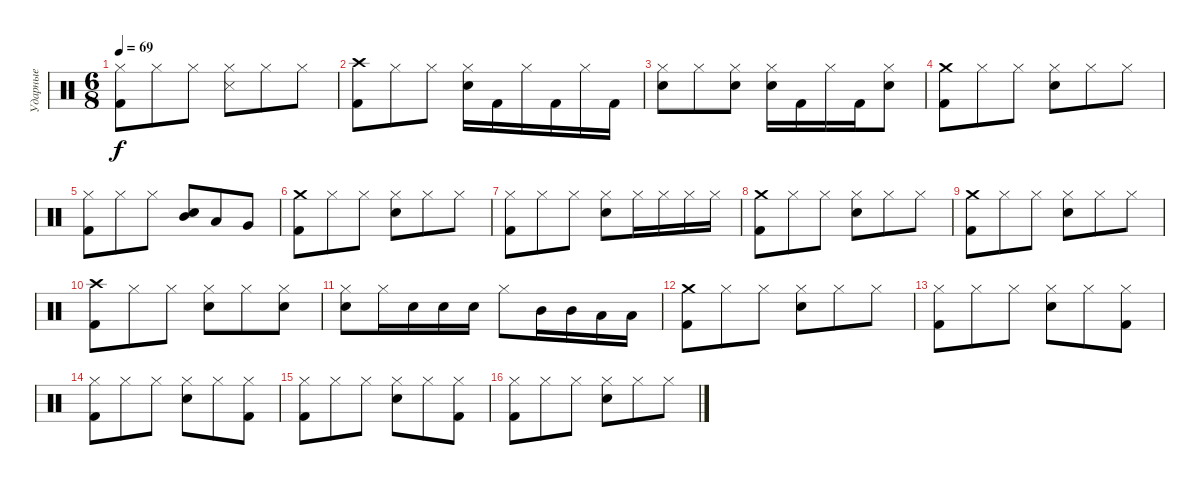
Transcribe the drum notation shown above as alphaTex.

\track ("Ударные" "Ударные") {instrument percussion}
\staff {score}
\articulation defaults
\ts (6 8)
\tempo 69
\clef neutral
\ks c
("Hi-Hat (closed)" "Kick (hit) 2").8{dy f} "Hi-Hat (closed)".8 "Hi-Hat (closed)".8 ("Hi-Hat (closed)" "Snare (side stick) 3").8 "Hi-Hat (closed)".8 "Hi-Hat (closed)".8 |
("Crash high (hit)" "Kick (hit) 2").8 "Hi-Hat (closed)".8 "Hi-Hat (closed)".8 ("Hi-Hat (closed)" "Snare (hit) 2").16 "Kick (hit) 2".16 "Hi-Hat (closed)".16 "Kick (hit) 2".16 "Hi-Hat (closed)".16 "Kick (hit) 2".16 |
("Hi-Hat (closed)" "Snare (hit) 2").8 "Hi-Hat (closed)".8 ("Hi-Hat (closed)" "Snare (hit) 2").8 ("Hi-Hat (closed)" "Snare (hit) 2").16 "Kick (hit) 2".16 "Hi-Hat (closed)".16 "Kick (hit) 2".16 ("Hi-Hat (closed)" "Snare (hit) 2").8 |
("Crash medium (hit)" "Kick (hit) 2").8 "Hi-Hat (closed)".8 "Hi-Hat (closed)".8 ("Hi-Hat (closed)" "Snare (hit) 2").8 "Hi-Hat (closed)".8 "Hi-Hat (closed)".8 |
("Hi-Hat (closed)" "Kick (hit) 2").8 "Hi-Hat (closed)".8 "Hi-Hat (closed)".8 ("Snare (hit) 2" "Mid Tom (hit)").8 "Low Tom (hit)".8 "Very Low Tom (hit)".8 |
("Crash medium (hit)" "Kick (hit) 2").8 "Hi-Hat (closed)".8 "Hi-Hat (closed)".8 ("Hi-Hat (closed)" "Snare (hit) 2").8 "Hi-Hat (closed)".8 "Hi-Hat (closed)".8 |
("Hi-Hat (closed)" "Kick (hit) 2").8 "Hi-Hat (closed)".8 "Hi-Hat (closed)".8 ("Hi-Hat (closed)" "Snare (hit) 2").8 "Hi-Hat (closed)".16 "Hi-Hat (closed)".16 "Hi-Hat (closed)".16 "Hi-Hat (closed)".16 |
("Crash medium (hit)" "Kick (hit) 2").8 "Hi-Hat (closed)".8 "Hi-Hat (closed)".8 ("Hi-Hat (closed)" "Snare (hit) 2").8 "Hi-Hat (closed)".8 "Hi-Hat (closed)".8 |
("Crash medium (hit)" "Kick (hit) 2").8 "Hi-Hat (closed)".8 "Hi-Hat (closed)".8 ("Hi-Hat (closed)" "Snare (hit) 2").8 "Hi-Hat (closed)".8 "Hi-Hat (closed)".8 |
("Crash high (hit)" "Kick (hit) 2").8 "Hi-Hat (closed)".8 "Hi-Hat (closed)".8 ("Hi-Hat (closed)" "Snare (hit) 2").8 "Hi-Hat (closed)".8 ("Hi-Hat (closed)" "Snare (hit) 2").8 |
("Hi-Hat (closed)" "Snare (hit) 2").8 "Hi-Hat (closed)".16 "Snare (hit) 2".16 "Snare (hit) 2".16 "Snare (hit) 2".16 "Hi-Hat (closed)".8 "Mid Tom (hit)".16 "Mid Tom (hit)".16 "Low Tom (hit)".16 "Low Tom (hit)".16 |
("Crash medium (hit)" "Kick (hit) 2").8 "Hi-Hat (closed)".8 "Hi-Hat (closed)".8 ("Hi-Hat (closed)" "Snare (hit) 2").8 "Hi-Hat (closed)".8 "Hi-Hat (closed)".8 |
("Hi-Hat (closed)" "Kick (hit) 2").8 "Hi-Hat (closed)".8 "Hi-Hat (closed)".8 ("Hi-Hat (closed)" "Snare (hit) 2").8 "Hi-Hat (closed)".8 ("Hi-Hat (closed)" "Kick (hit) 2").8 |
("Hi-Hat (closed)" "Kick (hit) 2").8 "Hi-Hat (closed)".8 "Hi-Hat (closed)".8 ("Hi-Hat (closed)" "Snare (hit) 2").8 "Hi-Hat (closed)".8 ("Hi-Hat (closed)" "Kick (hit) 2").8 |
("Hi-Hat (closed)" "Kick (hit) 2").8 "Hi-Hat (closed)".8 "Hi-Hat (closed)".8 ("Hi-Hat (closed)" "Snare (hit) 2").8 "Hi-Hat (closed)".8 ("Hi-Hat (closed)" "Kick (hit) 2").8 |
("Hi-Hat (closed)" "Kick (hit) 2").8 "Hi-Hat (closed)".8 "Hi-Hat (closed)".8 ("Hi-Hat (closed)" "Snare (hit) 2").8 "Hi-Hat (closed)".8 "Hi-Hat (closed)".8
